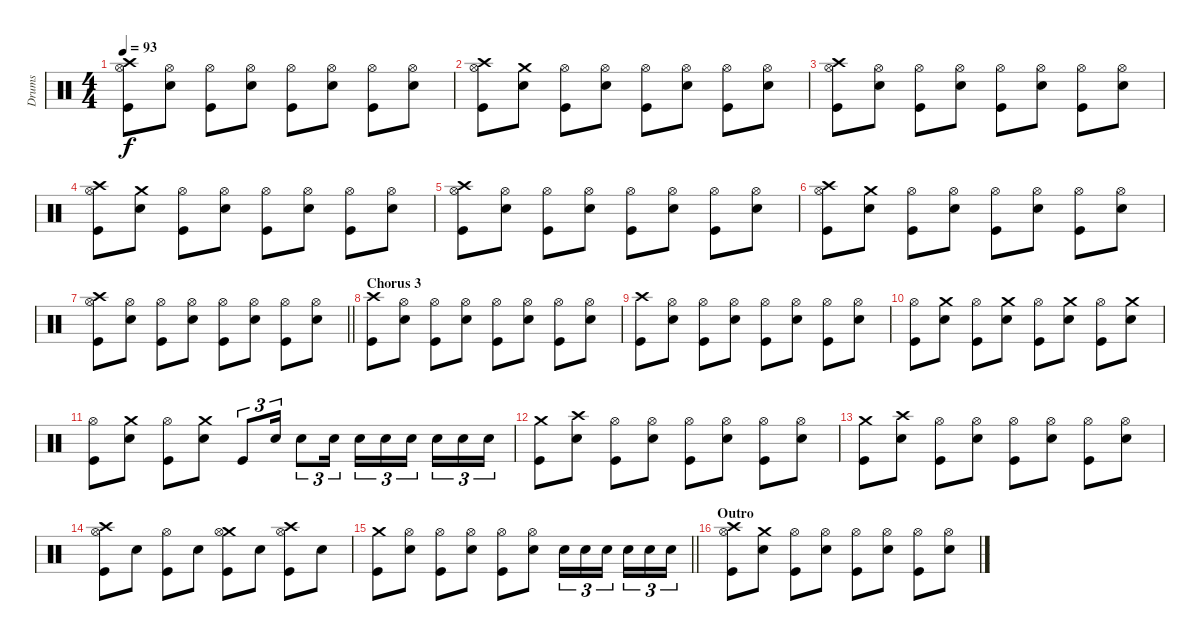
\track ("Drums" "Drums") {instrument percussion}
\staff {score}
\articulation defaults
\ts (4 4)
\tempo 93
\clef neutral
\ks c
("Crash high (hit)" "Hi-Hat (open)" "Kick (hit)").8{dy f} ("Hi-Hat (open)" "Snare (hit) 2").8 ("Hi-Hat (open)" "Kick (hit)").8 ("Hi-Hat (open)" "Snare (hit) 2").8 ("Hi-Hat (open)" "Kick (hit)").8 ("Hi-Hat (open)" "Snare (hit) 2").8 ("Hi-Hat (open)" "Kick (hit)").8 ("Hi-Hat (open)" "Snare (hit) 2").8 |
("Crash high (hit)" "Hi-Hat (open)" "Kick (hit)").8 ("Crash medium (hit)" "Snare (hit) 2").8 ("Hi-Hat (open)" "Kick (hit)").8 ("Hi-Hat (open)" "Snare (hit) 2").8 ("Hi-Hat (open)" "Kick (hit)").8 ("Hi-Hat (open)" "Snare (hit) 2").8 ("Hi-Hat (open)" "Kick (hit)").8 ("Hi-Hat (open)" "Snare (hit) 2").8 |
("Crash high (hit)" "Hi-Hat (open)" "Kick (hit)").8 ("Hi-Hat (open)" "Snare (hit) 2").8 ("Hi-Hat (open)" "Kick (hit)").8 ("Hi-Hat (open)" "Snare (hit) 2").8 ("Hi-Hat (open)" "Kick (hit)").8 ("Hi-Hat (open)" "Snare (hit) 2").8 ("Hi-Hat (open)" "Kick (hit)").8 ("Hi-Hat (open)" "Snare (hit) 2").8 |
("Crash high (hit)" "Hi-Hat (open)" "Kick (hit)").8 ("Crash medium (hit)" "Snare (hit) 2").8 ("Hi-Hat (open)" "Kick (hit)").8 ("Hi-Hat (open)" "Snare (hit) 2").8 ("Hi-Hat (open)" "Kick (hit)").8 ("Hi-Hat (open)" "Snare (hit) 2").8 ("Hi-Hat (open)" "Kick (hit)").8 ("Hi-Hat (open)" "Snare (hit) 2").8 |
("Crash high (hit)" "Hi-Hat (open)" "Kick (hit)").8 ("Hi-Hat (open)" "Snare (hit) 2").8 ("Hi-Hat (open)" "Kick (hit)").8 ("Hi-Hat (open)" "Snare (hit) 2").8 ("Hi-Hat (open)" "Kick (hit)").8 ("Hi-Hat (open)" "Snare (hit) 2").8 ("Hi-Hat (open)" "Kick (hit)").8 ("Hi-Hat (open)" "Snare (hit) 2").8 |
("Crash high (hit)" "Hi-Hat (open)" "Kick (hit)").8 ("Crash medium (hit)" "Snare (hit) 2").8 ("Hi-Hat (open)" "Kick (hit)").8 ("Hi-Hat (open)" "Snare (hit) 2").8 ("Hi-Hat (open)" "Kick (hit)").8 ("Hi-Hat (open)" "Snare (hit) 2").8 ("Hi-Hat (open)" "Kick (hit)").8 ("Hi-Hat (open)" "Snare (hit) 2").8 |
\barLineRight lightlight
("Crash high (hit)" "Hi-Hat (open)" "Kick (hit)").8 ("Hi-Hat (open)" "Snare (hit) 2").8 ("Hi-Hat (open)" "Kick (hit)").8 ("Hi-Hat (open)" "Snare (hit) 2").8 ("Hi-Hat (open)" "Kick (hit)").8 ("Hi-Hat (open)" "Snare (hit) 2").8 ("Hi-Hat (open)" "Kick (hit)").8 ("Hi-Hat (open)" "Snare (hit) 2").8 |
\section ("" "Chorus 3")
("Crash high (hit)" "Kick (hit)").8 ("Hi-Hat (open)" "Snare (hit) 2").8 ("Hi-Hat (open)" "Kick (hit)").8 ("Hi-Hat (open)" "Snare (hit) 2").8 ("Hi-Hat (open)" "Kick (hit)").8 ("Hi-Hat (open)" "Snare (hit) 2").8 ("Hi-Hat (open)" "Kick (hit)").8 ("Hi-Hat (open)" "Snare (hit) 2").8 |
("Crash high (hit)" "Kick (hit)").8 ("Hi-Hat (open)" "Snare (hit) 2").8 ("Hi-Hat (open)" "Kick (hit)").8 ("Hi-Hat (open)" "Snare (hit) 2").8 ("Hi-Hat (open)" "Kick (hit)").8 ("Hi-Hat (open)" "Snare (hit) 2").8 ("Hi-Hat (open)" "Kick (hit)").8 ("Hi-Hat (open)" "Snare (hit) 2").8 |
("Hi-Hat (open)" "Kick (hit)").8 ("Crash medium (hit)" "Snare (hit) 2").8 ("Hi-Hat (open)" "Kick (hit)").8 ("Crash medium (hit)" "Snare (hit) 2").8 ("Hi-Hat (open)" "Kick (hit)").8 ("Crash medium (hit)" "Snare (hit) 2").8 ("Hi-Hat (open)" "Kick (hit)").8 ("Crash medium (hit)" "Snare (hit) 2").8 |
("Hi-Hat (open)" "Kick (hit)").8 ("Crash medium (hit)" "Snare (hit) 2").8 ("Hi-Hat (open)" "Kick (hit)").8 ("Crash medium (hit)" "Snare (hit) 2").8 "Kick (hit)".8{tu (3 2)} "Snare (hit) 2".16{tu (3 2)} "Snare (hit) 2".8{tu (3 2)} "Snare (hit) 2".16{tu (3 2)} "Snare (hit) 2".16{tu (3 2)} "Snare (hit) 2".16{tu (3 2)} "Snare (hit) 2".16{tu (3 2) beam splitsecondary} "Snare (hit) 2".16{tu (3 2)} "Snare (hit) 2".16{tu (3 2)} "Snare (hit) 2".16{tu (3 2)} |
("Crash medium (hit)" "Kick (hit)").8 ("Crash high (hit)" "Snare (hit) 2").8 ("Hi-Hat (open)" "Kick (hit)").8 ("Hi-Hat (open)" "Snare (hit) 2").8 ("Hi-Hat (open)" "Kick (hit)").8 ("Hi-Hat (open)" "Snare (hit) 2").8 ("Hi-Hat (open)" "Kick (hit)").8 ("Hi-Hat (open)" "Snare (hit) 2").8 |
("Crash medium (hit)" "Kick (hit)").8 ("Crash high (hit)" "Snare (hit) 2").8 ("Hi-Hat (open)" "Kick (hit)").8 ("Hi-Hat (open)" "Snare (hit) 2").8 ("Hi-Hat (open)" "Kick (hit)").8 ("Hi-Hat (open)" "Snare (hit) 2").8 ("Hi-Hat (open)" "Kick (hit)").8 ("Hi-Hat (open)" "Snare (hit) 2").8 |
("Crash high (hit)" "Hi-Hat (open)" "Kick (hit)").8 "Snare (hit) 2".8 ("Hi-Hat (open)" "Kick (hit)").8 "Snare (hit) 2".8 ("Crash medium (hit)" "Hi-Hat (open)" "Kick (hit)").8 "Snare (hit) 2".8 ("Crash high (hit)" "Hi-Hat (open)" "Kick (hit)").8 "Snare (hit) 2".8 |
\barLineRight lightlight
("Crash medium (hit)" "Kick (hit)").8 ("Hi-Hat (open)" "Snare (hit) 2").8 ("Hi-Hat (open)" "Kick (hit)").8 ("Hi-Hat (open)" "Snare (hit) 2").8 ("Hi-Hat (open)" "Kick (hit)").8 ("Hi-Hat (open)" "Snare (hit) 2").8 "Snare (hit) 2".16{tu (3 2)} "Snare (hit) 2".16{tu (3 2)} "Snare (hit) 2".16{tu (3 2) beam splitsecondary} "Snare (hit) 2".16{tu (3 2)} "Snare (hit) 2".16{tu (3 2)} "Snare (hit) 2".16{tu (3 2)} |
\section ("" "Outro")
("Crash high (hit)" "Hi-Hat (open)" "Kick (hit)").8 ("Crash medium (hit)" "Snare (hit) 2").8 ("Hi-Hat (open)" "Kick (hit)").8 ("Hi-Hat (open)" "Snare (hit) 2").8 ("Hi-Hat (open)" "Kick (hit)").8 ("Hi-Hat (open)" "Snare (hit) 2").8 ("Hi-Hat (open)" "Kick (hit)").8 ("Hi-Hat (open)" "Snare (hit) 2").8
